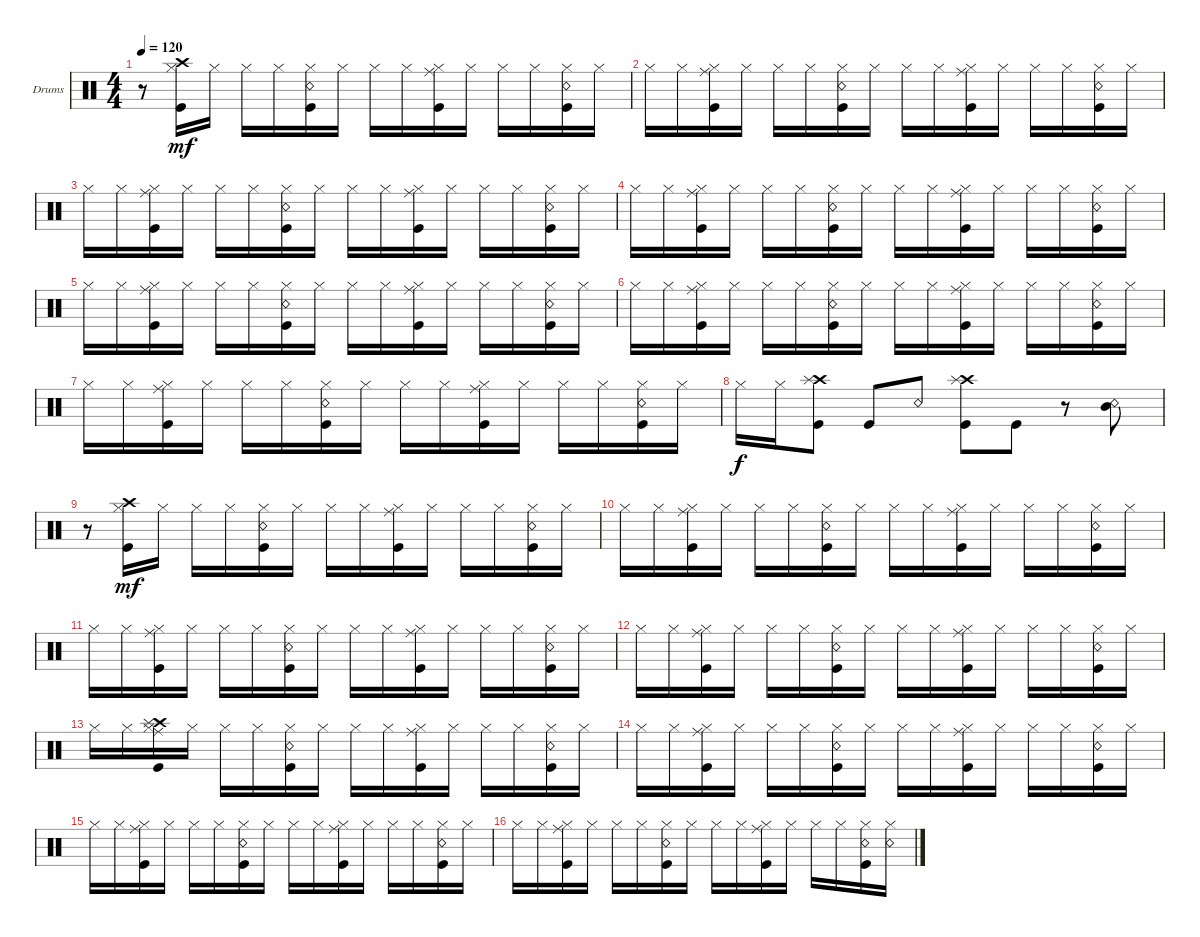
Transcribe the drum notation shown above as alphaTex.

\defaultSystemsLayout 4
\bracketExtendMode groupsimilarinstruments
\firstSystemTrackNameOrientation horizontal
\otherSystemsTrackNameOrientation horizontal
\track ("Нюта" "Drums") {instrument percussion}
\staff {score}
\articulation defaults
\ts (4 4)
\tempo 120
\clef neutral
\ks c
r.8{dy mf} ("Hi-Hat (closed)" "Crash high (hit)" "Kick (hit)").16 "Hi-Hat (closed)".16 "Hi-Hat (closed)".16 "Hi-Hat (closed)".16 ("Hi-Hat (closed)" "Snare (rim shot)" "Kick (hit)").16 "Hi-Hat (closed)".16 "Hi-Hat (closed)".16 "Hi-Hat (closed)".16 ("Hi-Hat (closed)" "Ride (middle)" "Kick (hit)").16 "Hi-Hat (closed)".16 "Hi-Hat (closed)".16 "Hi-Hat (closed)".16 ("Hi-Hat (closed)" "Snare (rim shot)" "Kick (hit)").16 "Hi-Hat (closed)".16 |
"Hi-Hat (closed)".16 "Hi-Hat (closed)".16 ("Hi-Hat (closed)" "Ride (middle)" "Kick (hit)").16 "Hi-Hat (closed)".16 "Hi-Hat (closed)".16 "Hi-Hat (closed)".16 ("Hi-Hat (closed)" "Snare (rim shot)" "Kick (hit)").16 "Hi-Hat (closed)".16 "Hi-Hat (closed)".16 "Hi-Hat (closed)".16 ("Hi-Hat (closed)" "Ride (middle)" "Kick (hit)").16 "Hi-Hat (closed)".16 "Hi-Hat (closed)".16 "Hi-Hat (closed)".16 ("Hi-Hat (closed)" "Snare (rim shot)" "Kick (hit)").16 "Hi-Hat (closed)".16 |
"Hi-Hat (closed)".16 "Hi-Hat (closed)".16 ("Hi-Hat (closed)" "Ride (middle)" "Kick (hit)").16 "Hi-Hat (closed)".16 "Hi-Hat (closed)".16 "Hi-Hat (closed)".16 ("Hi-Hat (closed)" "Snare (rim shot)" "Kick (hit)").16 "Hi-Hat (closed)".16 "Hi-Hat (closed)".16 "Hi-Hat (closed)".16 ("Hi-Hat (closed)" "Ride (middle)" "Kick (hit)").16 "Hi-Hat (closed)".16 "Hi-Hat (closed)".16 "Hi-Hat (closed)".16 ("Hi-Hat (closed)" "Snare (rim shot)" "Kick (hit)").16 "Hi-Hat (closed)".16 |
"Hi-Hat (closed)".16 "Hi-Hat (closed)".16 ("Hi-Hat (closed)" "Ride (middle)" "Kick (hit)").16 "Hi-Hat (closed)".16 "Hi-Hat (closed)".16 "Hi-Hat (closed)".16 ("Hi-Hat (closed)" "Snare (rim shot)" "Kick (hit)").16 "Hi-Hat (closed)".16 "Hi-Hat (closed)".16 "Hi-Hat (closed)".16 ("Hi-Hat (closed)" "Ride (middle)" "Kick (hit)").16 "Hi-Hat (closed)".16 "Hi-Hat (closed)".16 "Hi-Hat (closed)".16 ("Hi-Hat (closed)" "Snare (rim shot)" "Kick (hit)").16 "Hi-Hat (closed)".16 |
"Hi-Hat (closed)".16 "Hi-Hat (closed)".16 ("Hi-Hat (closed)" "Ride (middle)" "Kick (hit)").16 "Hi-Hat (closed)".16 "Hi-Hat (closed)".16 "Hi-Hat (closed)".16 ("Hi-Hat (closed)" "Snare (rim shot)" "Kick (hit)").16 "Hi-Hat (closed)".16 "Hi-Hat (closed)".16 "Hi-Hat (closed)".16 ("Hi-Hat (closed)" "Ride (middle)" "Kick (hit)").16 "Hi-Hat (closed)".16 "Hi-Hat (closed)".16 "Hi-Hat (closed)".16 ("Hi-Hat (closed)" "Snare (rim shot)" "Kick (hit)").16 "Hi-Hat (closed)".16 |
"Hi-Hat (closed)".16 "Hi-Hat (closed)".16 ("Hi-Hat (closed)" "Ride (middle)" "Kick (hit)").16 "Hi-Hat (closed)".16 "Hi-Hat (closed)".16 "Hi-Hat (closed)".16 ("Hi-Hat (closed)" "Snare (rim shot)" "Kick (hit)").16 "Hi-Hat (closed)".16 "Hi-Hat (closed)".16 "Hi-Hat (closed)".16 ("Hi-Hat (closed)" "Ride (middle)" "Kick (hit)").16 "Hi-Hat (closed)".16 "Hi-Hat (closed)".16 "Hi-Hat (closed)".16 ("Hi-Hat (closed)" "Snare (rim shot)" "Kick (hit)").16 "Hi-Hat (closed)".16 |
"Hi-Hat (closed)".16 "Hi-Hat (closed)".16 ("Hi-Hat (closed)" "Ride (middle)" "Kick (hit)").16 "Hi-Hat (closed)".16 "Hi-Hat (closed)".16 "Hi-Hat (closed)".16 ("Hi-Hat (closed)" "Snare (rim shot)" "Kick (hit)").16 "Hi-Hat (closed)".16 "Hi-Hat (closed)".16 "Hi-Hat (closed)".16 ("Hi-Hat (closed)" "Ride (middle)" "Kick (hit)").16 "Hi-Hat (closed)".16 "Hi-Hat (closed)".16 "Hi-Hat (closed)".16 ("Hi-Hat (closed)" "Snare (rim shot)" "Kick (hit)").16 "Hi-Hat (closed)".16 |
"Hi-Hat (closed)".16{dy f} "Hi-Hat (closed)".16 ("Kick (hit)" "Crash high (hit)" "Splash (hit)").8 "Kick (hit)".8 "Snare (rim shot)".8 ("Kick (hit)" "Crash high (hit)" "Splash (hit)").8 "Kick (hit)".8 r.8 ("Snare (rim shot)" "Mid Tom (hit)").8 |
r.8 ("Hi-Hat (closed)" "Crash high (hit)" "Kick (hit)").16{dy mf} "Hi-Hat (closed)".16 "Hi-Hat (closed)".16 "Hi-Hat (closed)".16 ("Hi-Hat (closed)" "Snare (rim shot)" "Kick (hit)").16 "Hi-Hat (closed)".16 "Hi-Hat (closed)".16 "Hi-Hat (closed)".16 ("Hi-Hat (closed)" "Ride (middle)" "Kick (hit)").16 "Hi-Hat (closed)".16 "Hi-Hat (closed)".16 "Hi-Hat (closed)".16 ("Hi-Hat (closed)" "Snare (rim shot)" "Kick (hit)").16 "Hi-Hat (closed)".16 |
"Hi-Hat (closed)".16 "Hi-Hat (closed)".16 ("Hi-Hat (closed)" "Ride (middle)" "Kick (hit)").16 "Hi-Hat (closed)".16 "Hi-Hat (closed)".16 "Hi-Hat (closed)".16 ("Hi-Hat (closed)" "Snare (rim shot)" "Kick (hit)").16 "Hi-Hat (closed)".16 "Hi-Hat (closed)".16 "Hi-Hat (closed)".16 ("Hi-Hat (closed)" "Ride (middle)" "Kick (hit)").16 "Hi-Hat (closed)".16 "Hi-Hat (closed)".16 "Hi-Hat (closed)".16 ("Hi-Hat (closed)" "Snare (rim shot)" "Kick (hit)").16 "Hi-Hat (closed)".16 |
"Hi-Hat (closed)".16 "Hi-Hat (closed)".16 ("Hi-Hat (closed)" "Ride (middle)" "Kick (hit)").16 "Hi-Hat (closed)".16 "Hi-Hat (closed)".16 "Hi-Hat (closed)".16 ("Hi-Hat (closed)" "Snare (rim shot)" "Kick (hit)").16 "Hi-Hat (closed)".16 "Hi-Hat (closed)".16 "Hi-Hat (closed)".16 ("Hi-Hat (closed)" "Ride (middle)" "Kick (hit)").16 "Hi-Hat (closed)".16 "Hi-Hat (closed)".16 "Hi-Hat (closed)".16 ("Hi-Hat (closed)" "Snare (rim shot)" "Kick (hit)").16 "Hi-Hat (closed)".16 |
"Hi-Hat (closed)".16 "Hi-Hat (closed)".16 ("Hi-Hat (closed)" "Ride (middle)" "Kick (hit)").16 "Hi-Hat (closed)".16 "Hi-Hat (closed)".16 "Hi-Hat (closed)".16 ("Hi-Hat (closed)" "Snare (rim shot)" "Kick (hit)").16 "Hi-Hat (closed)".16 "Hi-Hat (closed)".16 "Hi-Hat (closed)".16 ("Hi-Hat (closed)" "Ride (middle)" "Kick (hit)").16 "Hi-Hat (closed)".16 "Hi-Hat (closed)".16 "Hi-Hat (closed)".16 ("Hi-Hat (closed)" "Snare (rim shot)" "Kick (hit)").16 "Hi-Hat (closed)".16 |
"Hi-Hat (closed)".16 "Hi-Hat (closed)".16 ("Hi-Hat (closed)" "Ride (middle)" "Kick (hit)" "Crash high (hit)" "Splash (hit)").16 "Hi-Hat (closed)".16 "Hi-Hat (closed)".16 "Hi-Hat (closed)".16 ("Hi-Hat (closed)" "Snare (rim shot)" "Kick (hit)").16 "Hi-Hat (closed)".16 "Hi-Hat (closed)".16 "Hi-Hat (closed)".16 ("Hi-Hat (closed)" "Ride (middle)" "Kick (hit)").16 "Hi-Hat (closed)".16 "Hi-Hat (closed)".16 "Hi-Hat (closed)".16 ("Hi-Hat (closed)" "Snare (rim shot)" "Kick (hit)").16 "Hi-Hat (closed)".16 |
"Hi-Hat (closed)".16 "Hi-Hat (closed)".16 ("Hi-Hat (closed)" "Ride (middle)" "Kick (hit)").16 "Hi-Hat (closed)".16 "Hi-Hat (closed)".16 "Hi-Hat (closed)".16 ("Hi-Hat (closed)" "Snare (rim shot)" "Kick (hit)").16 "Hi-Hat (closed)".16 "Hi-Hat (closed)".16 "Hi-Hat (closed)".16 ("Hi-Hat (closed)" "Ride (middle)" "Kick (hit)").16 "Hi-Hat (closed)".16 "Hi-Hat (closed)".16 "Hi-Hat (closed)".16 ("Hi-Hat (closed)" "Snare (rim shot)" "Kick (hit)").16 "Hi-Hat (closed)".16 |
"Hi-Hat (closed)".16 "Hi-Hat (closed)".16 ("Hi-Hat (closed)" "Ride (middle)" "Kick (hit)").16 "Hi-Hat (closed)".16 "Hi-Hat (closed)".16 "Hi-Hat (closed)".16 ("Hi-Hat (closed)" "Snare (rim shot)" "Kick (hit)").16 "Hi-Hat (closed)".16 "Hi-Hat (closed)".16 "Hi-Hat (closed)".16 ("Hi-Hat (closed)" "Ride (middle)" "Kick (hit)").16 "Hi-Hat (closed)".16 "Hi-Hat (closed)".16 "Hi-Hat (closed)".16 ("Hi-Hat (closed)" "Snare (rim shot)" "Kick (hit)").16 "Hi-Hat (closed)".16 |
"Hi-Hat (closed)".16 "Hi-Hat (closed)".16 ("Hi-Hat (closed)" "Ride (middle)" "Kick (hit)").16 "Hi-Hat (closed)".16 "Hi-Hat (closed)".16 "Hi-Hat (closed)".16 ("Hi-Hat (closed)" "Snare (rim shot)" "Kick (hit)").16 "Hi-Hat (closed)".16 "Hi-Hat (closed)".16 "Hi-Hat (closed)".16 ("Hi-Hat (closed)" "Ride (middle)" "Kick (hit)").16 "Hi-Hat (closed)".16 "Hi-Hat (closed)".16 "Hi-Hat (closed)".16 ("Hi-Hat (closed)" "Snare (rim shot)" "Kick (hit)").16 ("Hi-Hat (closed)" "Snare (rim shot)").16
